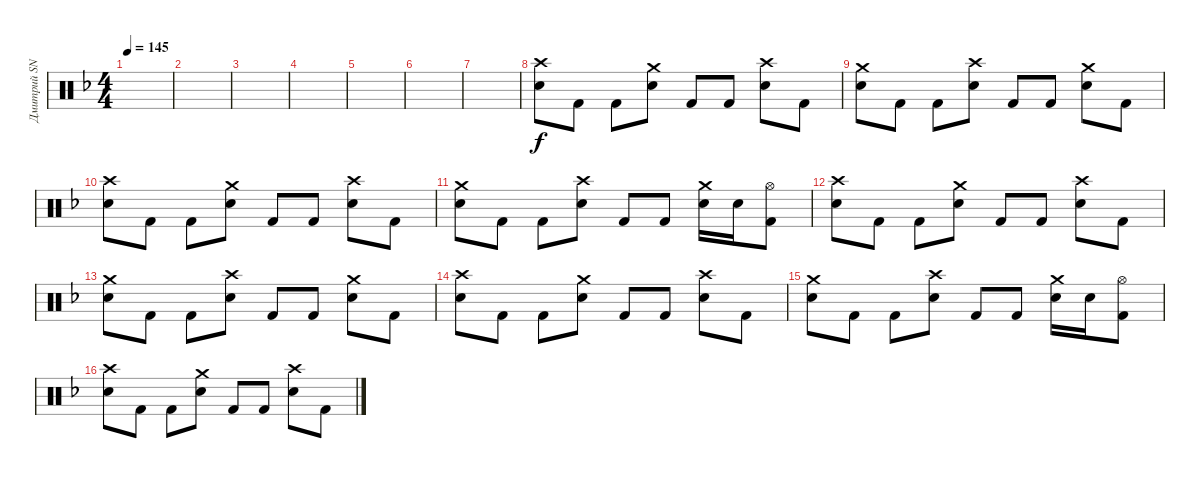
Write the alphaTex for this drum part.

\track ("Дмитрий SNAKE Хакимов" "Дмитрий SN") {instrument percussion}
\staff {score}
\articulation defaults
\ts (4 4)
\tempo 145
\clef neutral
\ks f
|
|
|
|
|
|
|
("Crash high (hit)" "Snare (hit) 2").8 "Kick (hit) 2".8 "Kick (hit) 2".8 ("Crash medium (hit)" "Snare (hit) 2").8 "Kick (hit) 2".8 "Kick (hit) 2".8 ("Crash high (hit)" "Snare (hit) 2").8 "Kick (hit) 2".8 |
("Crash medium (hit)" "Snare (hit) 2").8 "Kick (hit) 2".8 "Kick (hit) 2".8 ("Crash high (hit)" "Snare (hit) 2").8 "Kick (hit) 2".8 "Kick (hit) 2".8 ("Crash medium (hit)" "Snare (hit) 2").8 "Kick (hit) 2".8 |
("Crash high (hit)" "Snare (hit) 2").8 "Kick (hit) 2".8 "Kick (hit) 2".8 ("Crash medium (hit)" "Snare (hit) 2").8 "Kick (hit) 2".8 "Kick (hit) 2".8 ("Crash high (hit)" "Snare (hit) 2").8 "Kick (hit) 2".8 |
("Crash medium (hit)" "Snare (hit) 2").8 "Kick (hit) 2".8 "Kick (hit) 2".8 ("Crash high (hit)" "Snare (hit) 2").8 "Kick (hit) 2".8 "Kick (hit) 2".8 ("Crash medium (hit)" "Snare (hit) 2").16 "Snare (hit) 2".16 ("Hi-Hat (open)" "Kick (hit) 2").8 |
("Crash high (hit)" "Snare (hit) 2").8 "Kick (hit) 2".8 "Kick (hit) 2".8 ("Crash medium (hit)" "Snare (hit) 2").8 "Kick (hit) 2".8 "Kick (hit) 2".8 ("Crash high (hit)" "Snare (hit) 2").8 "Kick (hit) 2".8 |
("Crash medium (hit)" "Snare (hit) 2").8 "Kick (hit) 2".8 "Kick (hit) 2".8 ("Crash high (hit)" "Snare (hit) 2").8 "Kick (hit) 2".8 "Kick (hit) 2".8 ("Crash medium (hit)" "Snare (hit) 2").8 "Kick (hit) 2".8 |
("Crash high (hit)" "Snare (hit) 2").8 "Kick (hit) 2".8 "Kick (hit) 2".8 ("Crash medium (hit)" "Snare (hit) 2").8 "Kick (hit) 2".8 "Kick (hit) 2".8 ("Crash high (hit)" "Snare (hit) 2").8 "Kick (hit) 2".8 |
("Crash medium (hit)" "Snare (hit) 2").8 "Kick (hit) 2".8 "Kick (hit) 2".8 ("Crash high (hit)" "Snare (hit) 2").8 "Kick (hit) 2".8 "Kick (hit) 2".8 ("Crash medium (hit)" "Snare (hit) 2").16 "Snare (hit) 2".16 ("Hi-Hat (open)" "Kick (hit) 2").8 |
("Crash high (hit)" "Snare (hit) 2").8 "Kick (hit) 2".8 "Kick (hit) 2".8 ("Crash medium (hit)" "Snare (hit) 2").8 "Kick (hit) 2".8 "Kick (hit) 2".8 ("Crash high (hit)" "Snare (hit) 2").8 "Kick (hit) 2".8
